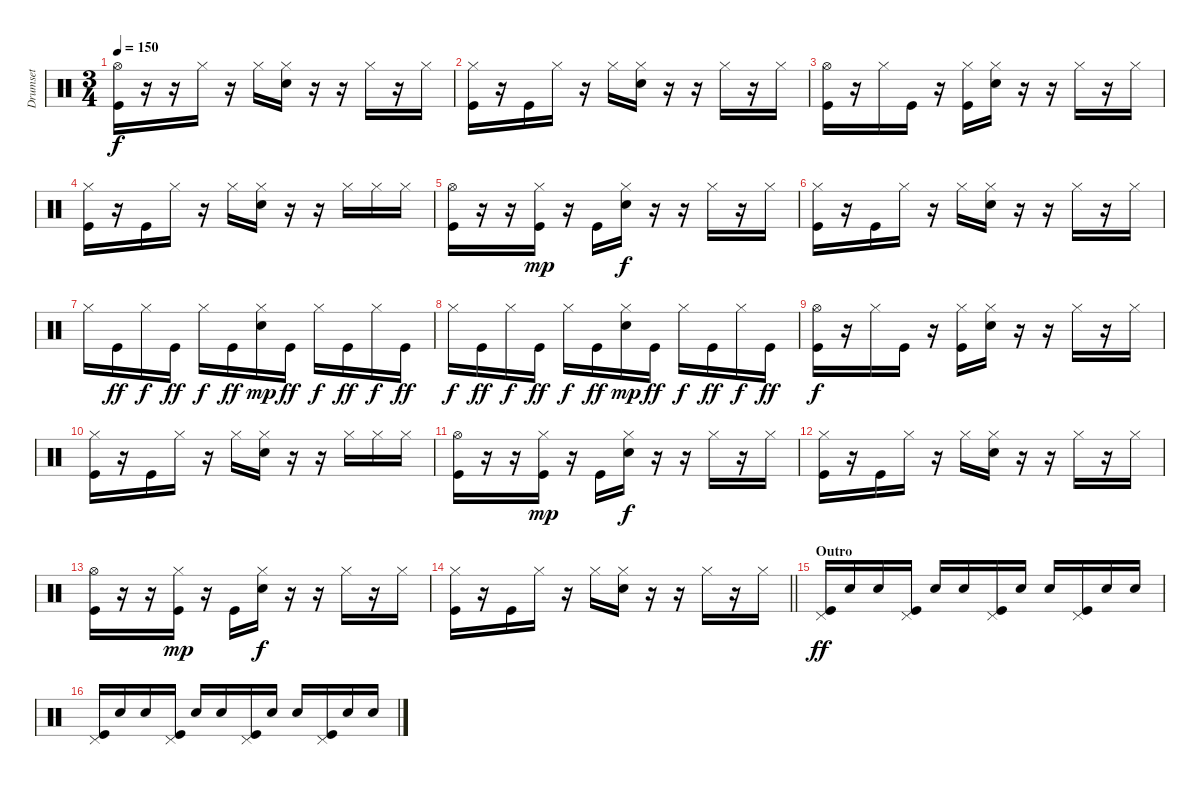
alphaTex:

\track ("Drumset" "Drumset") {instrument percussion}
\staff {score}
\articulation defaults
\ts (3 4)
\tempo 150
\clef neutral
\ks c
("Hi-Hat (open)" "Kick (hit)").16{dy f} r.16 r.16 "Hi-Hat (closed)".16 r.16 "Hi-Hat (closed)".16 ("Hi-Hat (closed)" "Snare (hit) 2").16 r.16 r.16 "Hi-Hat (closed)".16 r.16 "Hi-Hat (closed)".16 |
("Hi-Hat (closed)" "Kick (hit)").16 r.16 "Kick (hit)".16 "Hi-Hat (closed)".16 r.16 "Hi-Hat (closed)".16 ("Hi-Hat (closed)" "Snare (hit) 2").16 r.16 r.16 "Hi-Hat (closed)".16 r.16 "Hi-Hat (closed)".16 |
("Hi-Hat (open)" "Kick (hit)").16 r.16 "Hi-Hat (closed)".16 "Kick (hit)".16 r.16 ("Hi-Hat (closed)" "Kick (hit)").16 ("Hi-Hat (closed)" "Snare (hit) 2").16 r.16 r.16 "Hi-Hat (closed)".16 r.16 "Hi-Hat (closed)".16 |
("Hi-Hat (closed)" "Kick (hit)").16 r.16 "Kick (hit)".16 "Hi-Hat (closed)".16 r.16 "Hi-Hat (closed)".16 ("Hi-Hat (closed)" "Snare (hit) 2").16 r.16 r.16 "Hi-Hat (closed)".16 "Hi-Hat (closed)".16 "Hi-Hat (closed)".16 |
("Hi-Hat (open)" "Kick (hit)").16 r.16 r.16 ("Hi-Hat (closed)" "Kick (hit)").16{dy mp} r.16 "Kick (hit)".16 ("Hi-Hat (closed)" "Snare (hit) 2").16{dy f} r.16 r.16 "Hi-Hat (closed)".16 r.16 "Hi-Hat (closed)".16 |
("Hi-Hat (closed)" "Kick (hit)").16 r.16 "Kick (hit)".16 "Hi-Hat (closed)".16 r.16 "Hi-Hat (closed)".16 ("Hi-Hat (closed)" "Snare (hit) 2").16 r.16 r.16 "Hi-Hat (closed)".16 r.16 "Hi-Hat (closed)".16 |
"Hi-Hat (closed)".16 "Kick (hit)".16{dy ff} "Hi-Hat (closed)".16{dy f} "Kick (hit)".16{dy ff} "Hi-Hat (closed)".16{dy f} "Kick (hit)".16{dy ff} ("Hi-Hat (closed)" "Snare (hit) 2").16{dy mp} "Kick (hit)".16{dy ff} "Hi-Hat (closed)".16{dy f} "Kick (hit)".16{dy ff} "Hi-Hat (closed)".16{dy f} "Kick (hit)".16{dy ff} |
"Hi-Hat (closed)".16{dy f} "Kick (hit)".16{dy ff} "Hi-Hat (closed)".16{dy f} "Kick (hit)".16{dy ff} "Hi-Hat (closed)".16{dy f} "Kick (hit)".16{dy ff} ("Hi-Hat (closed)" "Snare (hit) 2").16{dy mp} "Kick (hit)".16{dy ff} "Hi-Hat (closed)".16{dy f} "Kick (hit)".16{dy ff} "Hi-Hat (closed)".16{dy f} "Kick (hit)".16{dy ff} |
("Hi-Hat (open)" "Kick (hit)").16{dy f} r.16 "Hi-Hat (closed)".16 "Kick (hit)".16 r.16 ("Hi-Hat (closed)" "Kick (hit)").16 ("Hi-Hat (closed)" "Snare (hit) 2").16 r.16 r.16 "Hi-Hat (closed)".16 r.16 "Hi-Hat (closed)".16 |
("Hi-Hat (closed)" "Kick (hit)").16 r.16 "Kick (hit)".16 "Hi-Hat (closed)".16 r.16 "Hi-Hat (closed)".16 ("Hi-Hat (closed)" "Snare (hit) 2").16 r.16 r.16 "Hi-Hat (closed)".16 "Hi-Hat (closed)".16 "Hi-Hat (closed)".16 |
("Hi-Hat (open)" "Kick (hit)").16 r.16 r.16 ("Hi-Hat (closed)" "Kick (hit)").16{dy mp} r.16 "Kick (hit)".16 ("Hi-Hat (closed)" "Snare (hit) 2").16{dy f} r.16 r.16 "Hi-Hat (closed)".16 r.16 "Hi-Hat (closed)".16 |
("Hi-Hat (closed)" "Kick (hit)").16 r.16 "Kick (hit)".16 "Hi-Hat (closed)".16 r.16 "Hi-Hat (closed)".16 ("Hi-Hat (closed)" "Snare (hit) 2").16 r.16 r.16 "Hi-Hat (closed)".16 r.16 "Hi-Hat (closed)".16 |
("Hi-Hat (open)" "Kick (hit)").16 r.16 r.16 ("Hi-Hat (closed)" "Kick (hit)").16{dy mp} r.16 "Kick (hit)".16 ("Hi-Hat (closed)" "Snare (hit) 2").16{dy f} r.16 r.16 "Hi-Hat (closed)".16 r.16 "Hi-Hat (closed)".16 |
\barLineRight lightlight
("Hi-Hat (closed)" "Kick (hit)").16 r.16 "Kick (hit)".16 "Hi-Hat (closed)".16 r.16 "Hi-Hat (closed)".16 ("Hi-Hat (closed)" "Snare (hit) 2").16 r.16 r.16 "Hi-Hat (closed)".16 r.16 "Hi-Hat (closed)".16 |
\section ("" "Outro")
("Kick (hit)" "Pedal Hi-Hat (hit)").16{dy ff} "Snare (hit) 2".16 "Snare (hit) 2".16 ("Kick (hit)" "Pedal Hi-Hat (hit)").16 "Snare (hit) 2".16 "Snare (hit) 2".16 ("Kick (hit)" "Pedal Hi-Hat (hit)").16 "Snare (hit) 2".16 "Snare (hit) 2".16 ("Kick (hit)" "Pedal Hi-Hat (hit)").16 "Snare (hit) 2".16 "Snare (hit) 2".16 |
("Kick (hit)" "Pedal Hi-Hat (hit)").16 "Snare (hit) 2".16 "Snare (hit) 2".16 ("Kick (hit)" "Pedal Hi-Hat (hit)").16 "Snare (hit) 2".16 "Snare (hit) 2".16 ("Kick (hit)" "Pedal Hi-Hat (hit)").16 "Snare (hit) 2".16 "Snare (hit) 2".16 ("Kick (hit)" "Pedal Hi-Hat (hit)").16 "Snare (hit) 2".16 "Snare (hit) 2".16
